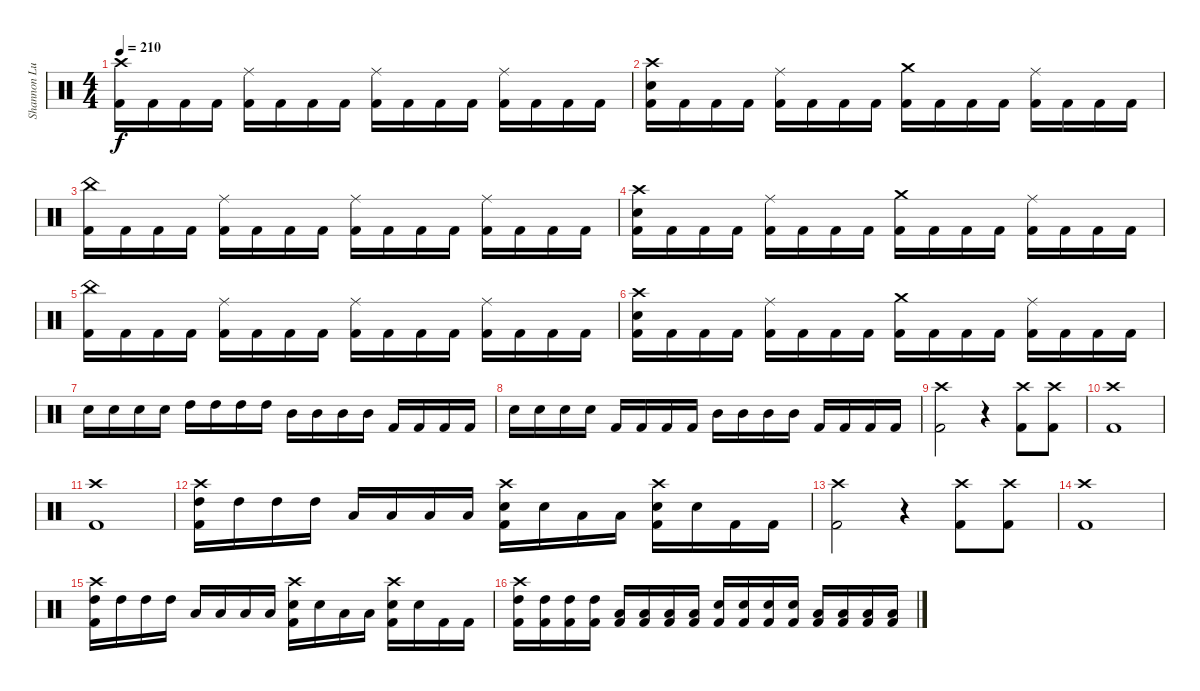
\track ("Shannon Lucas" "Shannon Lu") {instrument percussion}
\staff {score}
\articulation defaults
\ts (4 4)
\tempo 210
\clef neutral
\ks c
("Crash high (hit)" "Kick (hit) 2").16{dy f} "Kick (hit) 2".16 "Kick (hit) 2".16 "Kick (hit) 2".16 ("Ride (middle)" "Kick (hit) 2").16 "Kick (hit) 2".16 "Kick (hit) 2".16 "Kick (hit) 2".16 ("Ride (middle)" "Kick (hit) 2").16 "Kick (hit) 2".16 "Kick (hit) 2".16 "Kick (hit) 2".16 ("Ride (middle)" "Kick (hit) 2").16 "Kick (hit) 2".16 "Kick (hit) 2".16 "Kick (hit) 2".16 |
("Crash high (hit)" "Electric Snare (hit)" "Kick (hit) 2").16 "Kick (hit) 2".16 "Kick (hit) 2".16 "Kick (hit) 2".16 ("Ride (middle)" "Kick (hit) 2").16 "Kick (hit) 2".16 "Kick (hit) 2".16 "Kick (hit) 2".16 ("Crash medium (hit)" "Kick (hit) 2").16 "Kick (hit) 2".16 "Kick (hit) 2".16 "Kick (hit) 2".16 ("Ride (middle)" "Kick (hit) 2").16 "Kick (hit) 2".16 "Kick (hit) 2".16 "Kick (hit) 2".16 |
("China (hit)" "Kick (hit) 2").16 "Kick (hit) 2".16 "Kick (hit) 2".16 "Kick (hit) 2".16 ("Ride (middle)" "Kick (hit) 2").16 "Kick (hit) 2".16 "Kick (hit) 2".16 "Kick (hit) 2".16 ("Ride (middle)" "Kick (hit) 2").16 "Kick (hit) 2".16 "Kick (hit) 2".16 "Kick (hit) 2".16 ("Ride (middle)" "Kick (hit) 2").16 "Kick (hit) 2".16 "Kick (hit) 2".16 "Kick (hit) 2".16 |
("Crash high (hit)" "Electric Snare (hit)" "Kick (hit) 2").16 "Kick (hit) 2".16 "Kick (hit) 2".16 "Kick (hit) 2".16 ("Ride (middle)" "Kick (hit) 2").16 "Kick (hit) 2".16 "Kick (hit) 2".16 "Kick (hit) 2".16 ("Crash medium (hit)" "Kick (hit) 2").16 "Kick (hit) 2".16 "Kick (hit) 2".16 "Kick (hit) 2".16 ("Ride (middle)" "Kick (hit) 2").16 "Kick (hit) 2".16 "Kick (hit) 2".16 "Kick (hit) 2".16 |
("China (hit)" "Kick (hit) 2").16 "Kick (hit) 2".16 "Kick (hit) 2".16 "Kick (hit) 2".16 ("Ride (middle)" "Kick (hit) 2").16 "Kick (hit) 2".16 "Kick (hit) 2".16 "Kick (hit) 2".16 ("Ride (middle)" "Kick (hit) 2").16 "Kick (hit) 2".16 "Kick (hit) 2".16 "Kick (hit) 2".16 ("Ride (middle)" "Kick (hit) 2").16 "Kick (hit) 2".16 "Kick (hit) 2".16 "Kick (hit) 2".16 |
("Crash high (hit)" "Electric Snare (hit)" "Kick (hit) 2").16 "Kick (hit) 2".16 "Kick (hit) 2".16 "Kick (hit) 2".16 ("Ride (middle)" "Kick (hit) 2").16 "Kick (hit) 2".16 "Kick (hit) 2".16 "Kick (hit) 2".16 ("Crash medium (hit)" "Kick (hit) 2").16 "Kick (hit) 2".16 "Kick (hit) 2".16 "Kick (hit) 2".16 ("Ride (middle)" "Kick (hit) 2").16 "Kick (hit) 2".16 "Kick (hit) 2".16 "Kick (hit) 2".16 |
"Electric Snare (hit)".16 "Electric Snare (hit)".16 "Electric Snare (hit)".16 "Electric Snare (hit)".16 "High Tom (hit)".16 "High Tom (hit)".16 "High Tom (hit)".16 "High Tom (hit)".16 "Mid Tom (hit)".16 "Mid Tom (hit)".16 "Mid Tom (hit)".16 "Mid Tom (hit)".16 "Kick (hit) 2".16 "Kick (hit) 2".16 "Kick (hit) 2".16 "Kick (hit) 2".16 |
"Electric Snare (hit)".16 "Electric Snare (hit)".16 "Electric Snare (hit)".16 "Electric Snare (hit)".16 "Kick (hit) 2".16 "Kick (hit) 2".16 "Kick (hit) 2".16 "Kick (hit) 2".16 "Mid Tom (hit)".16 "Mid Tom (hit)".16 "Mid Tom (hit)".16 "Mid Tom (hit)".16 "Kick (hit) 2".16 "Kick (hit) 2".16 "Kick (hit) 2".16 "Kick (hit) 2".16 |
("Crash high (hit)" "Kick (hit) 2").2 r.4 ("Crash high (hit)" "Kick (hit) 2").8 ("Crash high (hit)" "Kick (hit) 2").8 |
("Crash high (hit)" "Kick (hit) 2").1 |
("Crash high (hit)" "Kick (hit) 2").1 |
("Crash high (hit)" "High Tom (hit)" "Kick (hit) 2").16 "High Tom (hit)".16 "High Tom (hit)".16 "High Tom (hit)".16 "Low Tom (hit)".16 "Low Tom (hit)".16 "Low Tom (hit)".16 "Low Tom (hit)".16 ("Crash high (hit)" "Electric Snare (hit)" "Kick (hit) 2").16 "Electric Snare (hit)".16 "Low Tom (hit)".16 "Low Tom (hit)".16 ("Crash high (hit)" "Electric Snare (hit)" "Kick (hit) 2").16 "Electric Snare (hit)".16 "Kick (hit) 2".16 "Kick (hit) 2".16 |
("Crash high (hit)" "Kick (hit) 2").2 r.4 ("Crash high (hit)" "Kick (hit) 2").8 ("Crash high (hit)" "Kick (hit) 2").8 |
("Crash high (hit)" "Kick (hit) 2").1 |
("Crash high (hit)" "High Tom (hit)" "Kick (hit) 2").16 "High Tom (hit)".16 "High Tom (hit)".16 "High Tom (hit)".16 "Low Tom (hit)".16 "Low Tom (hit)".16 "Low Tom (hit)".16 "Low Tom (hit)".16 ("Crash high (hit)" "Electric Snare (hit)" "Kick (hit) 2").16 "Electric Snare (hit)".16 "Low Tom (hit)".16 "Low Tom (hit)".16 ("Crash high (hit)" "Electric Snare (hit)" "Kick (hit) 2").16 "Electric Snare (hit)".16 "Kick (hit) 2".16 "Kick (hit) 2".16 |
("Crash high (hit)" "High Tom (hit)" "Kick (hit) 2").16 ("High Tom (hit)" "Kick (hit) 2").16 ("High Tom (hit)" "Kick (hit) 2").16 ("High Tom (hit)" "Kick (hit) 2").16 ("Low Tom (hit)" "Kick (hit) 2").16 ("Low Tom (hit)" "Kick (hit) 2").16 ("Low Tom (hit)" "Kick (hit) 2").16 ("Low Tom (hit)" "Kick (hit) 2").16 ("Electric Snare (hit)" "Kick (hit) 2").16 ("Electric Snare (hit)" "Kick (hit) 2").16 ("Electric Snare (hit)" "Kick (hit) 2").16 ("Electric Snare (hit)" "Kick (hit) 2").16 ("Low Tom (hit)" "Kick (hit) 2").16 ("Low Tom (hit)" "Kick (hit) 2").16 ("Low Tom (hit)" "Kick (hit) 2").16 ("Low Tom (hit)" "Kick (hit) 2").16
